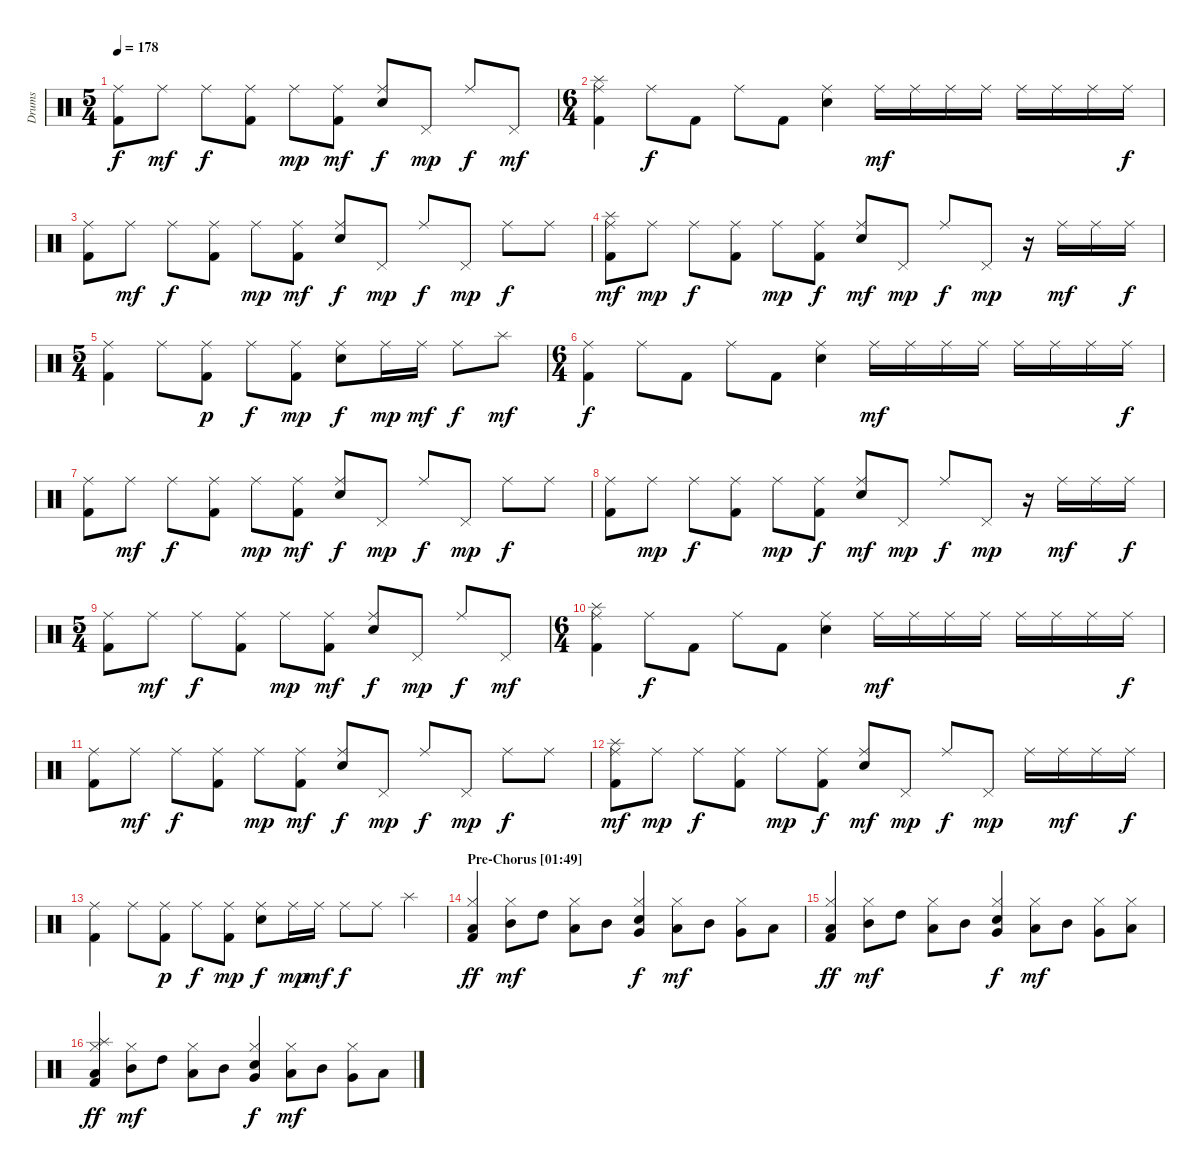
\track ("Drums" "Drums") {instrument percussion}
\staff {score}
\articulation defaults
\ts (5 4)
\tempo 178
\clef neutral
\ks c
("Ride (middle)" "Kick (hit) 2").8{dy f} "Ride (middle)".8{dy mf} "Ride (middle)".8{dy f} ("Ride (middle)" "Kick (hit) 2").8 "Ride (middle)".8{dy mp} ("Ride (middle)" "Kick (hit) 2").8{dy mf} ("Ride (middle)" "Electric Snare (hit)").8{dy f} "Pedal Hi-Hat (hit)".8{dy mp} "Ride (middle)".8{dy f} "Pedal Hi-Hat (hit)".8{dy mf} |
\ts (6 4)
("Ride (middle)" "Splash (hit)" "Kick (hit) 2").4 "Ride (middle)".8{dy f} "Kick (hit) 2".8 "Ride (middle)".8 "Kick (hit) 2".8 ("Ride (middle)" "Electric Snare (hit)").4 "Ride (middle)".16{dy mf} "Ride (middle)".16 "Ride (middle)".16 "Ride (middle)".16 "Ride (middle)".16 "Ride (middle)".16 "Ride (middle)".16 "Ride (middle)".16{dy f} |
("Ride (middle)" "Kick (hit) 2").8 "Ride (middle)".8{dy mf} "Ride (middle)".8{dy f} ("Ride (middle)" "Kick (hit) 2").8 "Ride (middle)".8{dy mp} ("Ride (middle)" "Kick (hit) 2").8{dy mf} ("Ride (middle)" "Electric Snare (hit)").8{dy f} "Pedal Hi-Hat (hit)".8{dy mp} "Ride (middle)".8{dy f} "Pedal Hi-Hat (hit)".8{dy mp} "Ride (middle)".8{dy f} "Ride (middle)".8 |
("Ride (middle)" "Splash (hit)" "Kick (hit) 2").8{dy mf} "Ride (middle)".8{dy mp} "Ride (middle)".8{dy f} ("Ride (middle)" "Kick (hit) 2").8 "Ride (middle)".8{dy mp} ("Ride (middle)" "Kick (hit) 2").8{dy f} ("Ride (middle)" "Electric Snare (hit)").8{dy mf} "Pedal Hi-Hat (hit)".8{dy mp} "Ride (middle)".8{dy f} "Pedal Hi-Hat (hit)".8{dy mp} r.16 "Ride (middle)".16{dy mf} "Ride (middle)".16 "Ride (middle)".16{dy f} |
\ts (5 4)
("Ride (middle)" "Kick (hit) 2").4 "Ride (middle)".8 ("Ride (middle)" "Kick (hit) 2").8{dy p} "Ride (middle)".8{dy f} ("Ride (middle)" "Kick (hit) 2").8{dy mp} ("Ride (middle)" "Electric Snare (hit)").8{dy f} "Ride (middle)".16{dy mp} "Ride (middle)".16{dy mf} "Ride (middle)".8{dy f} "Splash (hit)".8{dy mf} |
\ts (6 4)
\section ("" "")
("Ride (middle)" "Kick (hit) 2").4{dy f} "Ride (middle)".8 "Kick (hit) 2".8 "Ride (middle)".8 "Kick (hit) 2".8 ("Ride (middle)" "Electric Snare (hit)").4 "Ride (middle)".16{dy mf} "Ride (middle)".16 "Ride (middle)".16 "Ride (middle)".16 "Ride (middle)".16 "Ride (middle)".16 "Ride (middle)".16 "Ride (middle)".16{dy f} |
("Ride (middle)" "Kick (hit) 2").8 "Ride (middle)".8{dy mf} "Ride (middle)".8{dy f} ("Ride (middle)" "Kick (hit) 2").8 "Ride (middle)".8{dy mp} ("Ride (middle)" "Kick (hit) 2").8{dy mf} ("Ride (middle)" "Electric Snare (hit)").8{dy f} "Pedal Hi-Hat (hit)".8{dy mp} "Ride (middle)".8{dy f} "Pedal Hi-Hat (hit)".8{dy mp} "Ride (middle)".8{dy f} "Ride (middle)".8 |
("Ride (middle)" "Kick (hit) 2").8 "Ride (middle)".8{dy mp} "Ride (middle)".8{dy f} ("Ride (middle)" "Kick (hit) 2").8 "Ride (middle)".8{dy mp} ("Ride (middle)" "Kick (hit) 2").8{dy f} ("Ride (middle)" "Electric Snare (hit)").8{dy mf} "Pedal Hi-Hat (hit)".8{dy mp} "Ride (middle)".8{dy f} "Pedal Hi-Hat (hit)".8{dy mp} r.16 "Ride (middle)".16{dy mf} "Ride (middle)".16 "Ride (middle)".16{dy f} |
\ts (5 4)
("Ride (middle)" "Kick (hit) 2").8 "Ride (middle)".8{dy mf} "Ride (middle)".8{dy f} ("Ride (middle)" "Kick (hit) 2").8 "Ride (middle)".8{dy mp} ("Ride (middle)" "Kick (hit) 2").8{dy mf} ("Ride (middle)" "Electric Snare (hit)").8{dy f} "Pedal Hi-Hat (hit)".8{dy mp} "Ride (middle)".8{dy f} "Pedal Hi-Hat (hit)".8{dy mf} |
\ts (6 4)
("Ride (middle)" "Splash (hit)" "Kick (hit) 2").4 "Ride (middle)".8{dy f} "Kick (hit) 2".8 "Ride (middle)".8 "Kick (hit) 2".8 ("Ride (middle)" "Electric Snare (hit)").4 "Ride (middle)".16{dy mf} "Ride (middle)".16 "Ride (middle)".16 "Ride (middle)".16 "Ride (middle)".16 "Ride (middle)".16 "Ride (middle)".16 "Ride (middle)".16{dy f} |
("Ride (middle)" "Kick (hit) 2").8 "Ride (middle)".8{dy mf} "Ride (middle)".8{dy f} ("Ride (middle)" "Kick (hit) 2").8 "Ride (middle)".8{dy mp} ("Ride (middle)" "Kick (hit) 2").8{dy mf} ("Ride (middle)" "Electric Snare (hit)").8{dy f} "Pedal Hi-Hat (hit)".8{dy mp} "Ride (middle)".8{dy f} "Pedal Hi-Hat (hit)".8{dy mp} "Ride (middle)".8{dy f} "Ride (middle)".8 |
("Ride (middle)" "Splash (hit)" "Kick (hit) 2").8{dy mf} "Ride (middle)".8{dy mp} "Ride (middle)".8{dy f} ("Ride (middle)" "Kick (hit) 2").8 "Ride (middle)".8{dy mp} ("Ride (middle)" "Kick (hit) 2").8{dy f} ("Ride (middle)" "Electric Snare (hit)").8{dy mf} "Pedal Hi-Hat (hit)".8{dy mp} "Ride (middle)".8{dy f} "Pedal Hi-Hat (hit)".8{dy mp} "Ride (middle)".16 "Ride (middle)".16{dy mf} "Ride (middle)".16 "Ride (middle)".16{dy f} |
("Ride (middle)" "Kick (hit) 2").4 "Ride (middle)".8 ("Ride (middle)" "Kick (hit) 2").8{dy p} "Ride (middle)".8{dy f} ("Ride (middle)" "Kick (hit) 2").8{dy mp} ("Ride (middle)" "Electric Snare (hit)").8{dy f} "Ride (middle)".16{dy mp} "Ride (middle)".16{dy mf} "Ride (middle)".8{dy f} "Ride (middle)".8 "Splash (hit)".4 |
\section ("" "Pre-Chorus [01:49]")
("Hi-Hat (closed)" "Low Tom (hit)" "Kick (hit) 2").4{dy ff} ("Hi-Hat (closed)" "Mid Tom (hit)").8{dy mf} "High Tom (hit)".8 ("Hi-Hat (closed)" "Low Tom (hit)").8 "Mid Tom (hit)".8 ("Hi-Hat (closed)" "Very Low Tom (hit)" "Electric Snare (hit)").4{dy f} ("Hi-Hat (closed)" "Low Tom (hit)").8{dy mf} "Mid Tom (hit)".8 ("Hi-Hat (closed)" "Very Low Tom (hit)").8 "Low Tom (hit)".8 |
("Hi-Hat (closed)" "Low Floor Tom (hit)" "Kick (hit) 2").4{dy ff} ("Hi-Hat (closed)" "Mid Tom (hit)").8{dy mf} "High Tom (hit)".8 ("Hi-Hat (closed)" "Low Tom (hit)").8 "Mid Tom (hit)".8 ("Hi-Hat (closed)" "Very Low Tom (hit)" "Electric Snare (hit)").4{dy f} ("Hi-Hat (closed)" "Low Tom (hit)").8{dy mf} "Mid Tom (hit)".8 ("Hi-Hat (closed)" "Very Low Tom (hit)").8 ("Hi-Hat (closed)" "Low Tom (hit)").8 |
("Hi-Hat (closed)" "Splash (hit)" "Low Floor Tom (hit)" "Kick (hit) 2").4{dy ff} ("Hi-Hat (closed)" "Mid Tom (hit)").8{dy mf} "High Tom (hit)".8 ("Hi-Hat (closed)" "Low Tom (hit)").8 "Mid Tom (hit)".8 ("Hi-Hat (closed)" "Very Low Tom (hit)" "Electric Snare (hit)").4{dy f} ("Hi-Hat (closed)" "Low Tom (hit)").8{dy mf} "Mid Tom (hit)".8 ("Hi-Hat (closed)" "Very Low Tom (hit)").8 "Low Tom (hit)".8
